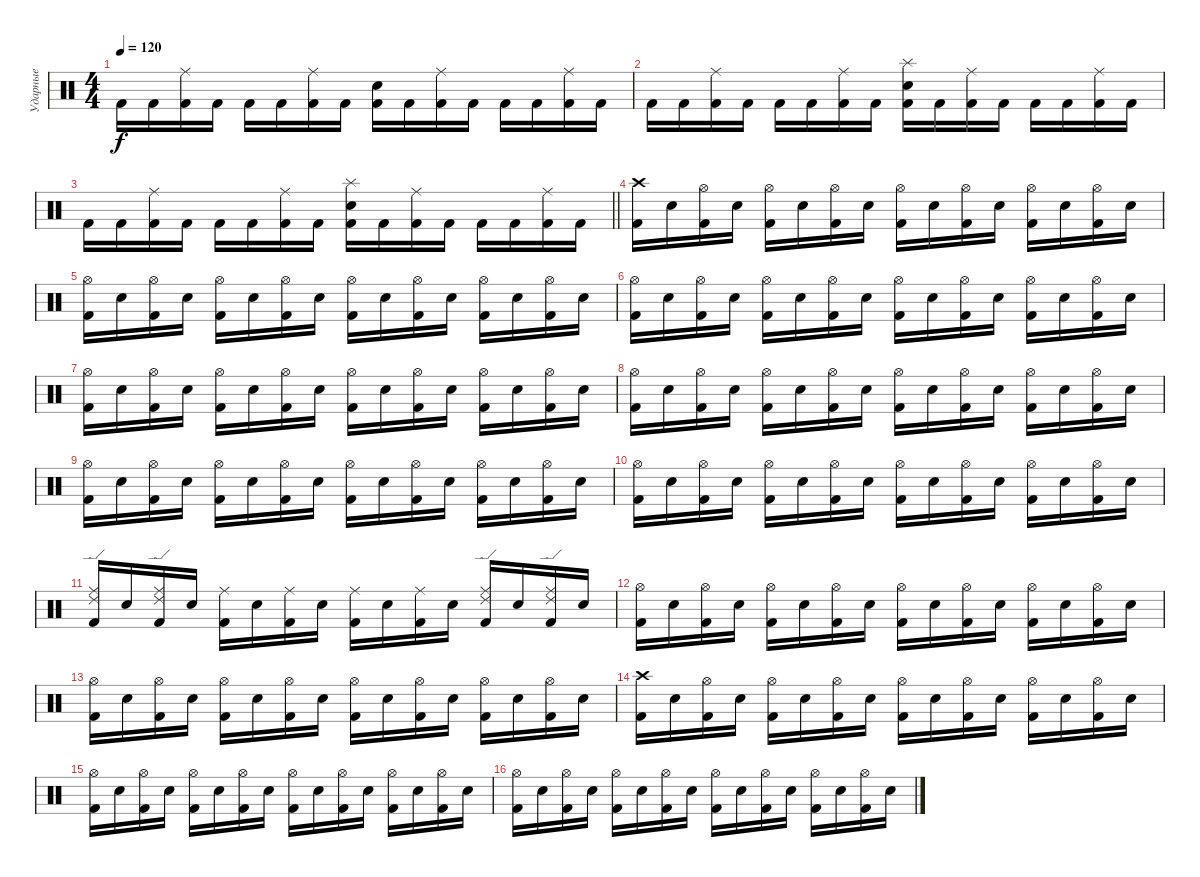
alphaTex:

\track ("Ударные" "Ударные") {instrument percussion}
\staff {score}
\articulation defaults
\ts (4 4)
\tempo 120
\clef neutral
\ks c "Kick (hit) 2".16{dy f} "Kick (hit) 2".16
("Kick (hit) 2" "Ride (middle)").16 "Kick (hit) 2".16 "Kick (hit) 2".16 "Kick (hit) 2".16 ("Kick (hit) 2" "Ride (middle)").16 "Kick (hit) 2".16 ("Kick (hit) 2" "Electric Snare (hit)").16 "Kick (hit) 2".16 ("Kick (hit) 2" "Ride (middle)").16 "Kick (hit) 2".16 "Kick (hit) 2".16 "Kick (hit) 2".16 ("Kick (hit) 2" "Ride (middle)").16 "Kick (hit) 2".16 |
"Kick (hit) 2".16 "Kick (hit) 2".16 ("Kick (hit) 2" "Ride (middle)").16 "Kick (hit) 2".16 "Kick (hit) 2".16 "Kick (hit) 2".16 ("Kick (hit) 2" "Ride (middle)").16 "Kick (hit) 2".16 ("Splash (hit)" "Kick (hit) 2" "Electric Snare (hit)").16 "Kick (hit) 2".16 ("Kick (hit) 2" "Ride (middle)").16 "Kick (hit) 2".16 "Kick (hit) 2".16 "Kick (hit) 2".16 ("Kick (hit) 2" "Ride (middle)").16 "Kick (hit) 2".16 |
\barLineRight lightlight "Kick (hit) 2".16 "Kick (hit) 2".16
("Kick (hit) 2" "Ride (middle)").16 "Kick (hit) 2".16 "Kick (hit) 2".16 "Kick (hit) 2".16 ("Kick (hit) 2" "Ride (middle)").16 "Kick (hit) 2".16 ("Splash (hit)" "Kick (hit) 2" "Electric Snare (hit)").16 "Kick (hit) 2".16 ("Kick (hit) 2" "Ride (middle)").16 "Kick (hit) 2".16 "Kick (hit) 2".16 "Kick (hit) 2".16 ("Kick (hit) 2" "Ride (middle)").16 "Kick (hit) 2".16 |
\section ("" "")
("Kick (hit) 2" "Crash high (hit)").16 "Electric Snare (hit)".16 ("Kick (hit) 2" "Hi-Hat (open)").16 "Electric Snare (hit)".16 ("Kick (hit) 2" "Hi-Hat (open)").16 "Electric Snare (hit)".16 ("Kick (hit) 2" "Hi-Hat (open)").16 "Electric Snare (hit)".16 ("Kick (hit) 2" "Hi-Hat (open)").16 "Electric Snare (hit)".16 ("Kick (hit) 2" "Hi-Hat (open)").16 "Electric Snare (hit)".16 ("Kick (hit) 2" "Hi-Hat (open)").16 "Electric Snare (hit)".16 ("Kick (hit) 2" "Hi-Hat (open)").16 "Electric Snare (hit)".16 |
("Kick (hit) 2" "Hi-Hat (open)").16 "Electric Snare (hit)".16 ("Kick (hit) 2" "Hi-Hat (open)").16 "Electric Snare (hit)".16 ("Kick (hit) 2" "Hi-Hat (open)").16 "Electric Snare (hit)".16 ("Kick (hit) 2" "Hi-Hat (open)").16 "Electric Snare (hit)".16 ("Kick (hit) 2" "Hi-Hat (open)").16 "Electric Snare (hit)".16 ("Kick (hit) 2" "Hi-Hat (open)").16 "Electric Snare (hit)".16 ("Kick (hit) 2" "Hi-Hat (open)").16 "Electric Snare (hit)".16 ("Kick (hit) 2" "Hi-Hat (open)").16 "Electric Snare (hit)".16 |
("Kick (hit) 2" "Hi-Hat (open)").16 "Electric Snare (hit)".16 ("Kick (hit) 2" "Hi-Hat (open)").16 "Electric Snare (hit)".16 ("Kick (hit) 2" "Hi-Hat (open)").16 "Electric Snare (hit)".16 ("Kick (hit) 2" "Hi-Hat (open)").16 "Electric Snare (hit)".16 ("Kick (hit) 2" "Hi-Hat (open)").16 "Electric Snare (hit)".16 ("Kick (hit) 2" "Hi-Hat (open)").16 "Electric Snare (hit)".16 ("Kick (hit) 2" "Hi-Hat (open)").16 "Electric Snare (hit)".16 ("Kick (hit) 2" "Hi-Hat (open)").16 "Electric Snare (hit)".16 |
("Kick (hit) 2" "Hi-Hat (open)").16 "Electric Snare (hit)".16 ("Kick (hit) 2" "Hi-Hat (open)").16 "Electric Snare (hit)".16 ("Kick (hit) 2" "Hi-Hat (open)").16 "Electric Snare (hit)".16 ("Kick (hit) 2" "Hi-Hat (open)").16 "Electric Snare (hit)".16 ("Kick (hit) 2" "Hi-Hat (open)").16 "Electric Snare (hit)".16 ("Kick (hit) 2" "Hi-Hat (open)").16 "Electric Snare (hit)".16 ("Kick (hit) 2" "Hi-Hat (open)").16 "Electric Snare (hit)".16 ("Kick (hit) 2" "Hi-Hat (open)").16 "Electric Snare (hit)".16 |
("Kick (hit) 2" "Hi-Hat (open)").16 "Electric Snare (hit)".16 ("Kick (hit) 2" "Hi-Hat (open)").16 "Electric Snare (hit)".16 ("Kick (hit) 2" "Hi-Hat (open)").16 "Electric Snare (hit)".16 ("Kick (hit) 2" "Hi-Hat (open)").16 "Electric Snare (hit)".16 ("Kick (hit) 2" "Hi-Hat (open)").16 "Electric Snare (hit)".16 ("Kick (hit) 2" "Hi-Hat (open)").16 "Electric Snare (hit)".16 ("Kick (hit) 2" "Hi-Hat (open)").16 "Electric Snare (hit)".16 ("Kick (hit) 2" "Hi-Hat (open)").16 "Electric Snare (hit)".16 |
("Kick (hit) 2" "Hi-Hat (open)").16 "Electric Snare (hit)".16 ("Kick (hit) 2" "Hi-Hat (open)").16 "Electric Snare (hit)".16 ("Kick (hit) 2" "Hi-Hat (open)").16 "Electric Snare (hit)".16 ("Kick (hit) 2" "Hi-Hat (open)").16 "Electric Snare (hit)".16 ("Kick (hit) 2" "Hi-Hat (open)").16 "Electric Snare (hit)".16 ("Kick (hit) 2" "Hi-Hat (open)").16 "Electric Snare (hit)".16 ("Kick (hit) 2" "Hi-Hat (open)").16 "Electric Snare (hit)".16 ("Kick (hit) 2" "Hi-Hat (open)").16 "Electric Snare (hit)".16 |
("Kick (hit) 2" "Hi-Hat (open)").16 "Electric Snare (hit)".16 ("Kick (hit) 2" "Hi-Hat (open)").16 "Electric Snare (hit)".16 ("Kick (hit) 2" "Hi-Hat (open)").16 "Electric Snare (hit)".16 ("Kick (hit) 2" "Hi-Hat (open)").16 "Electric Snare (hit)".16 ("Kick (hit) 2" "Hi-Hat (open)").16 "Electric Snare (hit)".16 ("Kick (hit) 2" "Hi-Hat (open)").16 "Electric Snare (hit)".16 ("Kick (hit) 2" "Hi-Hat (open)").16 "Electric Snare (hit)".16 ("Kick (hit) 2" "Hi-Hat (open)").16 "Electric Snare (hit)".16 |
("Kick (hit) 2" "Ride (middle)" "Ride (edge) 2").16 "Electric Snare (hit)".16 ("Kick (hit) 2" "Ride (middle)" "Ride (edge) 2").16 "Electric Snare (hit)".16 ("Kick (hit) 2" "Ride (middle)").16 "Electric Snare (hit)".16 ("Kick (hit) 2" "Ride (middle)").16 "Electric Snare (hit)".16 ("Kick (hit) 2" "Ride (middle)").16 "Electric Snare (hit)".16 ("Kick (hit) 2" "Ride (middle)").16 "Electric Snare (hit)".16 ("Kick (hit) 2" "Ride (middle)" "Ride (edge) 2").16 "Electric Snare (hit)".16 ("Kick (hit) 2" "Ride (middle)" "Ride (edge) 2").16 "Electric Snare (hit)".16 |
("Kick (hit) 2" "Hi-Hat (open)").16 "Electric Snare (hit)".16 ("Kick (hit) 2" "Hi-Hat (open)").16 "Electric Snare (hit)".16 ("Kick (hit) 2" "Hi-Hat (open)").16 "Electric Snare (hit)".16 ("Kick (hit) 2" "Hi-Hat (open)").16 "Electric Snare (hit)".16 ("Kick (hit) 2" "Hi-Hat (open)").16 "Electric Snare (hit)".16 ("Kick (hit) 2" "Hi-Hat (open)").16 "Electric Snare (hit)".16 ("Kick (hit) 2" "Hi-Hat (open)").16 "Electric Snare (hit)".16 ("Kick (hit) 2" "Hi-Hat (open)").16 "Electric Snare (hit)".16 |
("Kick (hit) 2" "Hi-Hat (open)").16 "Electric Snare (hit)".16 ("Kick (hit) 2" "Hi-Hat (open)").16 "Electric Snare (hit)".16 ("Kick (hit) 2" "Hi-Hat (open)").16 "Electric Snare (hit)".16 ("Kick (hit) 2" "Hi-Hat (open)").16 "Electric Snare (hit)".16 ("Kick (hit) 2" "Hi-Hat (open)").16 "Electric Snare (hit)".16 ("Kick (hit) 2" "Hi-Hat (open)").16 "Electric Snare (hit)".16 ("Kick (hit) 2" "Hi-Hat (open)").16 "Electric Snare (hit)".16 ("Kick (hit) 2" "Hi-Hat (open)").16 "Electric Snare (hit)".16 |
("Kick (hit) 2" "Crash high (hit)").16 "Electric Snare (hit)".16 ("Kick (hit) 2" "Hi-Hat (open)").16 "Electric Snare (hit)".16 ("Kick (hit) 2" "Hi-Hat (open)").16 "Electric Snare (hit)".16 ("Kick (hit) 2" "Hi-Hat (open)").16 "Electric Snare (hit)".16 ("Kick (hit) 2" "Hi-Hat (open)").16 "Electric Snare (hit)".16 ("Kick (hit) 2" "Hi-Hat (open)").16 "Electric Snare (hit)".16 ("Kick (hit) 2" "Hi-Hat (open)").16 "Electric Snare (hit)".16 ("Kick (hit) 2" "Hi-Hat (open)").16 "Electric Snare (hit)".16 |
("Kick (hit) 2" "Hi-Hat (open)").16 "Electric Snare (hit)".16 ("Kick (hit) 2" "Hi-Hat (open)").16 "Electric Snare (hit)".16 ("Kick (hit) 2" "Hi-Hat (open)").16 "Electric Snare (hit)".16 ("Kick (hit) 2" "Hi-Hat (open)").16 "Electric Snare (hit)".16 ("Kick (hit) 2" "Hi-Hat (open)").16 "Electric Snare (hit)".16 ("Kick (hit) 2" "Hi-Hat (open)").16 "Electric Snare (hit)".16 ("Kick (hit) 2" "Hi-Hat (open)").16 "Electric Snare (hit)".16 ("Kick (hit) 2" "Hi-Hat (open)").16 "Electric Snare (hit)".16 |
("Kick (hit) 2" "Hi-Hat (open)").16 "Electric Snare (hit)".16 ("Kick (hit) 2" "Hi-Hat (open)").16 "Electric Snare (hit)".16 ("Kick (hit) 2" "Hi-Hat (open)").16 "Electric Snare (hit)".16 ("Kick (hit) 2" "Hi-Hat (open)").16 "Electric Snare (hit)".16 ("Kick (hit) 2" "Hi-Hat (open)").16 "Electric Snare (hit)".16 ("Kick (hit) 2" "Hi-Hat (open)").16 "Electric Snare (hit)".16 ("Kick (hit) 2" "Hi-Hat (open)").16 "Electric Snare (hit)".16 ("Kick (hit) 2" "Hi-Hat (open)").16 "Electric Snare (hit)".16
